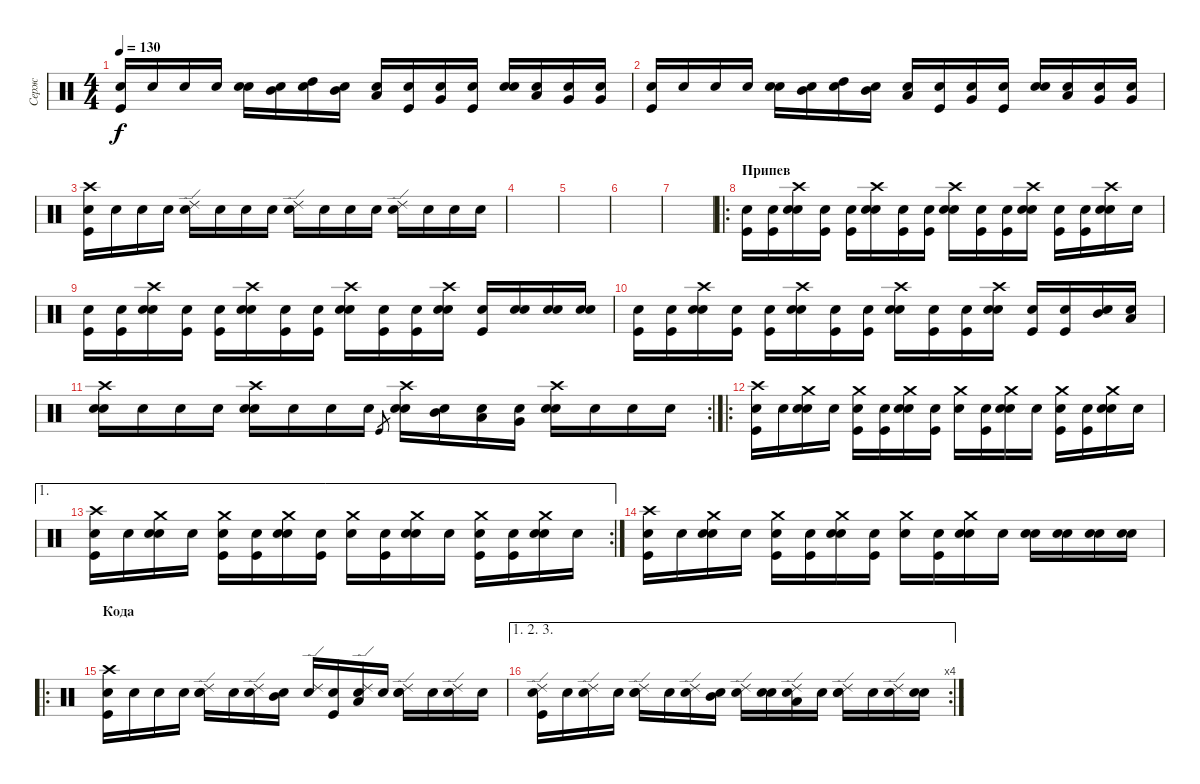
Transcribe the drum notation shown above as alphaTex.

\track ("Серж" "Серж") {instrument percussion}
\staff {score}
\articulation defaults
\ts (4 4)
\tempo 130
\clef neutral
\ks c
("Snare (hit)"{x} "Kick (hit)").16{dy f} "Snare (hit)"{x}.16 "Snare (hit)"{x}.16 "Snare (hit)"{x}.16 ("Snare (hit)"{x} "Snare (hit) 2").16 ("Snare (hit)"{x} "Mid Tom (hit)").16 ("Snare (hit)"{x} "High Tom (hit)").16 ("Snare (hit)"{x} "Mid Tom (hit)").16 ("Snare (hit)"{x} "Low Tom (hit)").16 ("Snare (hit)"{x} "Kick (hit)").16 ("Snare (hit)"{x} "Very Low Tom (hit)").16 ("Snare (hit)"{x} "Kick (hit)").16 ("Snare (hit)"{x} "Snare (hit) 2").16 ("Snare (hit)"{x} "Low Tom (hit)").16 ("Snare (hit)"{x} "Very Low Tom (hit)").16 ("Snare (hit)"{x} "Very Low Tom (hit)").16 |
("Snare (hit)"{x} "Kick (hit)").16 "Snare (hit)"{x}.16 "Snare (hit)"{x}.16 "Snare (hit)"{x}.16 ("Snare (hit)"{x} "Snare (hit) 2").16 ("Snare (hit)"{x} "Mid Tom (hit)").16 ("Snare (hit)"{x} "High Tom (hit)").16 ("Snare (hit)"{x} "Mid Tom (hit)").16 ("Snare (hit)"{x} "Low Tom (hit)").16 ("Snare (hit)"{x} "Kick (hit)").16 ("Snare (hit)"{x} "Very Low Tom (hit)").16 ("Snare (hit)"{x} "Kick (hit)").16 ("Snare (hit)"{x} "Snare (hit) 2").16 ("Snare (hit)"{x} "Low Tom (hit)").16 ("Snare (hit)"{x} "Very Low Tom (hit)").16 ("Snare (hit)"{x} "Very Low Tom (hit)").16 |
("Snare (hit)"{x} "Kick (hit)" "Crash high (hit)").16 "Snare (hit)"{x}.16 "Snare (hit)"{x}.16 "Snare (hit)"{x}.16 ("Snare (hit)"{x} "Ride (edge) 2").16 "Snare (hit)"{x}.16 "Snare (hit)"{x}.16 "Snare (hit)"{x}.16 ("Snare (hit)"{x} "Ride (edge) 2").16 "Snare (hit)"{x}.16 "Snare (hit)"{x}.16 "Snare (hit)"{x}.16 ("Snare (hit)"{x} "Ride (edge) 2").16 "Snare (hit)"{x}.16 "Snare (hit)"{x}.16 "Snare (hit)"{x}.16 |
\section ("" "")
|
|
|
|
\ro
\section ("" "Припев")
("Snare (hit)"{x} "Kick (hit)").16 ("Snare (hit)"{x} "Kick (hit)").16 ("Snare (hit)"{x} "Snare (hit) 2" "Crash high (hit)").16 ("Snare (hit)"{x} "Kick (hit)").16 ("Snare (hit)"{x} "Kick (hit)").16 ("Snare (hit)"{x} "Snare (hit) 2" "Crash high (hit)").16 ("Snare (hit)"{x} "Kick (hit)").16 ("Snare (hit)"{x} "Kick (hit)").16 ("Snare (hit)"{x} "Snare (hit) 2" "Crash high (hit)").16 ("Snare (hit)"{x} "Kick (hit)").16 ("Snare (hit)"{x} "Kick (hit)").16 ("Snare (hit)"{x} "Snare (hit) 2" "Crash high (hit)").16 ("Snare (hit)"{x} "Kick (hit)").16 ("Snare (hit)"{x} "Kick (hit)").16 ("Snare (hit)"{x} "Snare (hit) 2" "Crash high (hit)").16 "Snare (hit)"{x}.16 |
("Snare (hit)"{x} "Kick (hit)").16 ("Snare (hit)"{x} "Kick (hit)").16 ("Snare (hit)"{x} "Snare (hit) 2" "Crash high (hit)").16 ("Snare (hit)"{x} "Kick (hit)").16 ("Snare (hit)"{x} "Kick (hit)").16 ("Snare (hit)"{x} "Snare (hit) 2" "Crash high (hit)").16 ("Snare (hit)"{x} "Kick (hit)").16 ("Snare (hit)"{x} "Kick (hit)").16 ("Snare (hit)"{x} "Snare (hit) 2" "Crash high (hit)").16 ("Snare (hit)"{x} "Kick (hit)").16 ("Snare (hit)"{x} "Kick (hit)").16 ("Snare (hit)"{x} "Snare (hit) 2" "Crash high (hit)").16 ("Snare (hit)"{x} "Kick (hit)").16 ("Snare (hit)"{x} "Snare (hit) 2").16 ("Snare (hit)"{x} "Snare (hit) 2").16 ("Snare (hit)"{x} "Snare (hit) 2").16 |
("Snare (hit)"{x} "Kick (hit)").16 ("Snare (hit)"{x} "Kick (hit)").16 ("Snare (hit)"{x} "Snare (hit) 2" "Crash high (hit)").16 ("Snare (hit)"{x} "Kick (hit)").16 ("Snare (hit)"{x} "Kick (hit)").16 ("Snare (hit)"{x} "Snare (hit) 2" "Crash high (hit)").16 ("Snare (hit)"{x} "Kick (hit)").16 ("Snare (hit)"{x} "Kick (hit)").16 ("Snare (hit)"{x} "Snare (hit) 2" "Crash high (hit)").16 ("Snare (hit)"{x} "Kick (hit)").16 ("Snare (hit)"{x} "Kick (hit)").16 ("Snare (hit)"{x} "Snare (hit) 2" "Crash high (hit)").16 ("Snare (hit)"{x} "Kick (hit)").16 ("Snare (hit)"{x} "Kick (hit)").16 ("Snare (hit)"{x} "Mid Tom (hit)").16 ("Snare (hit)"{x} "Low Tom (hit)").16 |
\rc 2
("Snare (hit)"{x} "Snare (hit) 2" "Crash high (hit)").16 "Snare (hit)"{x}.16 "Snare (hit)"{x}.16 "Snare (hit)"{x}.16 ("Snare (hit)"{x} "Snare (hit) 2" "Crash high (hit)").16 "Snare (hit)"{x}.16 "Snare (hit)"{x}.16 "Snare (hit)"{x}.16 "Kick (hit)".8{gr} ("Snare (hit)"{x} "Snare (hit) 2" "Crash high (hit)").16 ("Snare (hit)"{x} "Mid Tom (hit)").16 ("Snare (hit)"{x} "Low Tom (hit)").16 ("Snare (hit)"{x} "Very Low Tom (hit)").16 ("Snare (hit)"{x} "Snare (hit) 2" "Crash high (hit)").16 "Snare (hit)"{x}.16 "Snare (hit)"{x}.16 "Snare (hit)"{x}.16 |
\ro
("Snare (hit)"{x} "Kick (hit)" "Crash high (hit)").16 "Snare (hit)"{x}.16 ("Snare (hit)"{x} "Snare (hit) 2" "Crash medium (hit)").16 "Snare (hit)"{x}.16 ("Snare (hit)"{x} "Kick (hit)" "Crash medium (hit)").16 ("Snare (hit)"{x} "Kick (hit)").16 ("Snare (hit)"{x} "Snare (hit) 2" "Crash medium (hit)").16 ("Snare (hit)"{x} "Kick (hit)").16 ("Snare (hit)"{x} "Crash medium (hit)").16 ("Snare (hit)"{x} "Kick (hit)").16 ("Snare (hit)"{x} "Snare (hit) 2" "Crash medium (hit)").16 "Snare (hit)"{x}.16 ("Snare (hit)"{x} "Kick (hit)" "Crash medium (hit)").16 ("Snare (hit)"{x} "Kick (hit)").16 ("Snare (hit)"{x} "Snare (hit) 2" "Crash medium (hit)").16 "Snare (hit)"{x}.16 |
\ae 1
\rc 2
("Snare (hit)"{x} "Kick (hit)" "Crash high (hit)").16 "Snare (hit)"{x}.16 ("Snare (hit)"{x} "Snare (hit) 2" "Crash medium (hit)").16 "Snare (hit)"{x}.16 ("Snare (hit)"{x} "Kick (hit)" "Crash medium (hit)").16 ("Snare (hit)"{x} "Kick (hit)").16 ("Snare (hit)"{x} "Snare (hit) 2" "Crash medium (hit)").16 ("Snare (hit)"{x} "Kick (hit)").16 ("Snare (hit)"{x} "Crash medium (hit)").16 ("Snare (hit)"{x} "Kick (hit)").16 ("Snare (hit)"{x} "Snare (hit) 2" "Crash medium (hit)").16 "Snare (hit)"{x}.16 ("Snare (hit)"{x} "Kick (hit)" "Crash medium (hit)").16 ("Snare (hit)"{x} "Kick (hit)").16 ("Snare (hit)"{x} "Snare (hit) 2" "Crash medium (hit)").16 "Snare (hit)"{x}.16 |
("Snare (hit)"{x} "Kick (hit)" "Crash high (hit)").16 "Snare (hit)"{x}.16 ("Snare (hit)"{x} "Snare (hit) 2" "Crash medium (hit)").16 "Snare (hit)"{x}.16 ("Snare (hit)"{x} "Kick (hit)" "Crash medium (hit)").16 ("Snare (hit)"{x} "Kick (hit)").16 ("Snare (hit)"{x} "Snare (hit) 2" "Crash medium (hit)").16 ("Snare (hit)"{x} "Kick (hit)").16 ("Snare (hit)"{x} "Crash medium (hit)").16 ("Snare (hit)"{x} "Kick (hit)").16 ("Snare (hit)"{x} "Snare (hit) 2" "Crash medium (hit)").16 "Snare (hit)"{x}.16 ("Snare (hit)"{x} "Snare (hit) 2").16 ("Snare (hit)"{x} "Snare (hit) 2").16 ("Snare (hit)"{x} "Snare (hit) 2").16 ("Snare (hit)"{x} "Snare (hit) 2").16 |
\ro
\section ("" "Кода")
("Snare (hit)"{x} "Kick (hit)" "Crash high (hit)").16 "Snare (hit)"{x}.16 "Snare (hit)"{x}.16 "Snare (hit)"{x}.16 ("Snare (hit)"{x} "Snare (hit) 2" "Ride (edge) 2").16 "Snare (hit)"{x}.16 ("Snare (hit)"{x} "Ride (edge) 2").16 ("Snare (hit)"{x} "Mid Tom (hit)").16 ("Snare (hit)"{x} "Ride (edge) 2").16 ("Snare (hit)"{x} "Kick (hit)").16 ("Snare (hit)"{x} "Low Tom (hit)" "Ride (edge) 2").16 "Snare (hit)"{x}.16 ("Snare (hit)"{x} "Snare (hit) 2" "Ride (edge) 2").16 "Snare (hit)"{x}.16 ("Snare (hit)"{x} "Ride (edge) 2").16 "Snare (hit)"{x}.16 |
\ae (1 2 3)
\rc 4
("Snare (hit)"{x} "Kick (hit)" "Ride (edge) 2").16 "Snare (hit)"{x}.16 ("Snare (hit)"{x} "Ride (edge) 2").16 "Snare (hit)"{x}.16 ("Snare (hit)"{x} "Snare (hit) 2" "Ride (edge) 2").16 "Snare (hit)"{x}.16 ("Snare (hit)"{x} "Ride (edge) 2").16 ("Snare (hit)"{x} "Mid Tom (hit)").16 ("Snare (hit)"{x} "Ride (edge) 2").16 ("Snare (hit)"{x} "Snare (hit) 2").16 ("Snare (hit)"{x} "Low Tom (hit)" "Ride (edge) 2").16 "Snare (hit)"{x}.16 ("Snare (hit)"{x} "Snare (hit) 2" "Ride (edge) 2").16 "Snare (hit)"{x}.16 ("Snare (hit)"{x} "Ride (edge) 2").16 ("Snare (hit)"{x} "Snare (hit) 2").16
